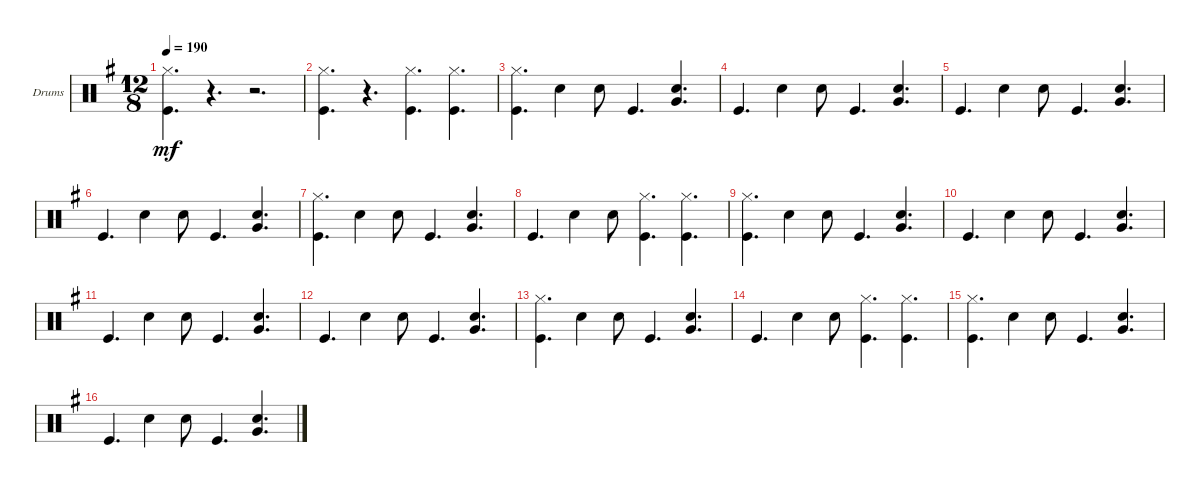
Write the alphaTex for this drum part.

\defaultSystemsLayout 4
\bracketExtendMode groupsimilarinstruments
\firstSystemTrackNameOrientation horizontal
\otherSystemsTrackNameOrientation horizontal
\track ("Drumkit" "Drums") {instrument percussion}
\staff {score}
\articulation defaults
\ts (12 8)
\tempo 190
\clef neutral
\scale
0.504425
\ks g
("Hi-Hat (closed)" "Kick (hit)").4{d dy mf} r.4{d} r.2{d} |
\scale
0.247788 ("Kick (hit)" "Hi-Hat (closed)").4{d} r.4{d} ("Hi-Hat (closed)" "Kick (hit)").4{d} ("Kick (hit)" "Hi-Hat (closed)").4{d} |
\scale
0.247788 ("Hi-Hat (closed)" "Kick (hit)").4{d} "Snare (hit) 2".4 "Snare (hit) 2".8 "Kick (hit)".4{d} ("Very Low Tom (hit)" "Snare (hit) 2").4{d} |
"Kick (hit)".4{d} "Snare (hit) 2".4 "Snare (hit) 2".8 "Kick (hit)".4{d} ("Very Low Tom (hit)" "Snare (hit) 2").4{d} |
"Kick (hit)".4{d} "Snare (hit) 2".4 "Snare (hit) 2".8 "Kick (hit)".4{d} ("Very Low Tom (hit)" "Snare (hit) 2").4{d} |
"Kick (hit)".4{d} "Snare (hit) 2".4 "Snare (hit) 2".8 "Kick (hit)".4{d} ("Very Low Tom (hit)" "Snare (hit) 2").4{d} |
("Hi-Hat (closed)" "Kick (hit)").4{d} "Snare (hit) 2".4 "Snare (hit) 2".8 "Kick (hit)".4{d} ("Very Low Tom (hit)" "Snare (hit) 2").4{d} |
"Kick (hit)".4{d} "Snare (hit) 2".4 "Snare (hit) 2".8 ("Hi-Hat (closed)" "Kick (hit)").4{d} ("Kick (hit)" "Hi-Hat (closed)").4{d} |
("Hi-Hat (closed)" "Kick (hit)").4{d} "Snare (hit) 2".4 "Snare (hit) 2".8 "Kick (hit)".4{d} ("Very Low Tom (hit)" "Snare (hit) 2").4{d} |
"Kick (hit)".4{d} "Snare (hit) 2".4 "Snare (hit) 2".8 "Kick (hit)".4{d} ("Very Low Tom (hit)" "Snare (hit) 2").4{d} |
"Kick (hit)".4{d} "Snare (hit) 2".4 "Snare (hit) 2".8 "Kick (hit)".4{d} ("Very Low Tom (hit)" "Snare (hit) 2").4{d} |
"Kick (hit)".4{d} "Snare (hit) 2".4 "Snare (hit) 2".8 "Kick (hit)".4{d} ("Very Low Tom (hit)" "Snare (hit) 2").4{d} |
("Hi-Hat (closed)" "Kick (hit)").4{d} "Snare (hit) 2".4 "Snare (hit) 2".8 "Kick (hit)".4{d} ("Very Low Tom (hit)" "Snare (hit) 2").4{d} |
"Kick (hit)".4{d} "Snare (hit) 2".4 "Snare (hit) 2".8 ("Hi-Hat (closed)" "Kick (hit)").4{d} ("Kick (hit)" "Hi-Hat (closed)").4{d} |
("Hi-Hat (closed)" "Kick (hit)").4{d} "Snare (hit) 2".4 "Snare (hit) 2".8 "Kick (hit)".4{d} ("Very Low Tom (hit)" "Snare (hit) 2").4{d} |
"Kick (hit)".4{d} "Snare (hit) 2".4 "Snare (hit) 2".8 "Kick (hit)".4{d} ("Very Low Tom (hit)" "Snare (hit) 2").4{d}
